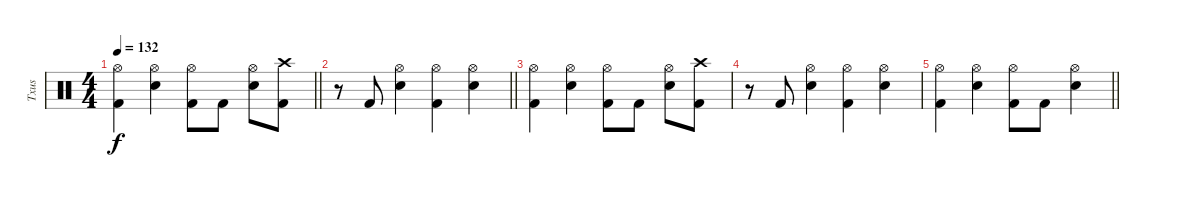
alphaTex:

\track ("Txus" "Txus") {instrument percussion}
\staff {score}
\articulation defaults
\ts (4 4)
\tempo 132
\clef neutral
\barLineRight lightlight
\ks c
("Hi-Hat (open)" "Kick (hit) 2").4{dy f} ("Hi-Hat (open)" "Electric Snare (hit)").4 ("Hi-Hat (open)" "Kick (hit) 2").8 "Kick (hit) 2".8 ("Hi-Hat (open)" "Electric Snare (hit)").8 ("Crash high (hit)" "Kick (hit) 2").8 |
\barLineRight lightlight
r.8 "Kick (hit) 2".8 ("Hi-Hat (open)" "Electric Snare (hit)").4 ("Hi-Hat (open)" "Kick (hit) 2").4 ("Hi-Hat (open)" "Electric Snare (hit)").4 |
("Hi-Hat (open)" "Kick (hit) 2").4 ("Hi-Hat (open)" "Electric Snare (hit)").4 ("Hi-Hat (open)" "Kick (hit) 2").8 "Kick (hit) 2".8 ("Hi-Hat (open)" "Electric Snare (hit)").8 ("Crash high (hit)" "Kick (hit) 2").8 |
r.8 "Kick (hit) 2".8 ("Hi-Hat (open)" "Electric Snare (hit)").4 ("Hi-Hat (open)" "Kick (hit) 2").4 ("Hi-Hat (open)" "Electric Snare (hit)").4 |
\barLineRight lightlight
("Hi-Hat (open)" "Kick (hit) 2").4 ("Hi-Hat (open)" "Electric Snare (hit)").4 ("Hi-Hat (open)" "Kick (hit) 2").8 "Kick (hit) 2".8 ("Hi-Hat (open)" "Electric Snare (hit)").4
